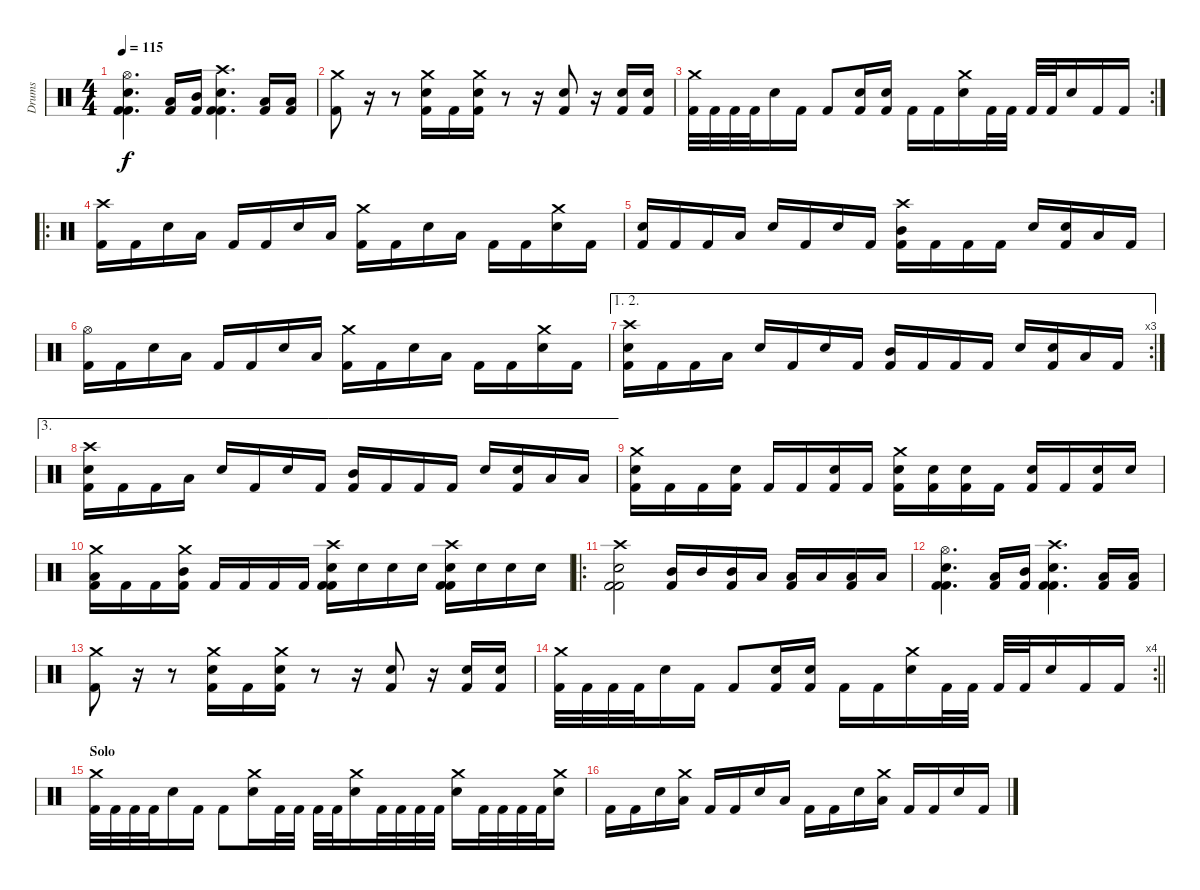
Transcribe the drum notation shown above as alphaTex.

\track ("Drums" "Drums") {instrument percussion}
\staff {score}
\articulation defaults
\ts (4 4)
\tempo 115
\clef neutral
\ks c
("Hi-Hat (open)" "Electric Snare (hit)" "Kick (hit) 2" "Kick (hit) 2").4{d dy f} ("Low Tom (hit)" "Kick (hit) 2").16 ("Mid Tom (hit)" "Kick (hit) 2").16 ("Crash high (hit)" "Electric Snare (hit)" "Kick (hit) 2" "Kick (hit) 2").4{d} ("Low Floor Tom (hit)" "Kick (hit) 2").16 ("Low Tom (hit)" "Kick (hit) 2").16 |
("Crash medium (hit)" "Kick (hit) 2").8 r.16 r.8 ("Crash medium (hit)" "Electric Snare (hit)" "Kick (hit) 2").16 "Kick (hit) 2".16 ("Crash medium (hit)" "Electric Snare (hit)" "Kick (hit) 2").16 r.8 r.16 ("Electric Snare (hit)" "Kick (hit) 2").8 r.16 ("Electric Snare (hit)" "Kick (hit) 2").16 ("Electric Snare (hit)" "Kick (hit) 2").16 |
\rc 2
("Crash medium (hit)" "Kick (hit) 2").32 "Kick (hit) 2".32 "Kick (hit) 2".32 "Kick (hit) 2".32 "Electric Snare (hit)".16 "Kick (hit) 2".16 "Kick (hit) 2".8 ("Electric Snare (hit)" "Kick (hit) 2").16 ("Electric Snare (hit)" "Kick (hit) 2").16 "Kick (hit) 2".16 "Kick (hit) 2".16 ("Crash medium (hit)" "Electric Snare (hit)").16 "Kick (hit) 2".32 "Kick (hit) 2".32 "Kick (hit) 2".32 "Kick (hit) 2".32 "Electric Snare (hit)".16 "Kick (hit) 2".16 "Kick (hit) 2".16 |
\ro
("Crash high (hit)" "Kick (hit) 2").16 "Kick (hit) 2".16 "Electric Snare (hit)".16 "Low Tom (hit)".16 "Kick (hit) 2".16 "Kick (hit) 2".16 "Electric Snare (hit)".16 "Low Tom (hit)".16 ("Crash medium (hit)" "Kick (hit) 2").16 "Kick (hit) 2".16 "Electric Snare (hit)".16 "Low Tom (hit)".16 "Kick (hit) 2".16 "Kick (hit) 2".16 ("Crash medium (hit)" "Electric Snare (hit)").16 "Kick (hit) 2".16 |
("Electric Snare (hit)" "Kick (hit) 2").16 "Kick (hit) 2".16 "Kick (hit) 2".16 "Low Tom (hit)".16 "Electric Snare (hit)".16 "Kick (hit) 2".16 "Electric Snare (hit)".16 "Kick (hit) 2".16 ("Crash high (hit)" "Mid Tom (hit)" "Kick (hit) 2").16 "Kick (hit) 2".16 "Kick (hit) 2".16 "Kick (hit) 2".16 "Electric Snare (hit)".16 ("Electric Snare (hit)" "Kick (hit) 2").16 "Low Floor Tom (hit)".16 "Kick (hit) 2".16 |
("Hi-Hat (open)" "Kick (hit) 2").16 "Kick (hit) 2".16 "Electric Snare (hit)".16 "Low Tom (hit)".16 "Kick (hit) 2".16 "Kick (hit) 2".16 "Electric Snare (hit)".16 "Low Tom (hit)".16 ("Crash medium (hit)" "Kick (hit) 2").16 "Kick (hit) 2".16 "Electric Snare (hit)".16 "Low Tom (hit)".16 "Kick (hit) 2".16 "Kick (hit) 2".16 ("Crash medium (hit)" "Electric Snare (hit)").16 "Kick (hit) 2".16 |
\ae (1 2)
\rc 3
("Crash high (hit)" "Electric Snare (hit)" "Kick (hit) 2").16 "Kick (hit) 2".16 "Kick (hit) 2".16 "Low Tom (hit)".16 "Electric Snare (hit)".16 "Kick (hit) 2".16 "Electric Snare (hit)".16 "Kick (hit) 2".16 ("Mid Tom (hit)" "Kick (hit) 2").16 "Kick (hit) 2".16 "Kick (hit) 2".16 "Kick (hit) 2".16 "Electric Snare (hit)".16 ("Electric Snare (hit)" "Kick (hit) 2").16 "Low Floor Tom (hit)".16 "Kick (hit) 2".16 |
\ae 3
("Crash high (hit)" "Electric Snare (hit)" "Kick (hit) 2").16 "Kick (hit) 2".16 "Kick (hit) 2".16 "Low Tom (hit)".16 "Electric Snare (hit)".16 "Kick (hit) 2".16 "Electric Snare (hit)".16 "Kick (hit) 2".16 ("Mid Tom (hit)" "Kick (hit) 2").16 "Kick (hit) 2".16 "Kick (hit) 2".16 "Kick (hit) 2".16 "Electric Snare (hit)".16 ("Electric Snare (hit)" "Kick (hit) 2").16 "Low Floor Tom (hit)".16 "Low Tom (hit)".16 |
("Crash medium (hit)" "Electric Snare (hit)" "Kick (hit) 2").16 "Kick (hit) 2".16 "Kick (hit) 2".16 ("Electric Snare (hit)" "Kick (hit) 2").16 "Kick (hit) 2".16 "Kick (hit) 2".16 ("Electric Snare (hit)" "Kick (hit) 2").16 "Kick (hit) 2".16 ("Crash medium (hit)" "Electric Snare (hit)" "Kick (hit) 2").16 ("Electric Snare (hit)" "Kick (hit) 2").16 ("Electric Snare (hit)" "Kick (hit) 2").16 "Kick (hit) 2".16 ("Electric Snare (hit)" "Kick (hit) 2").16 "Kick (hit) 2".16 ("Electric Snare (hit)" "Kick (hit) 2").16 "Electric Snare (hit)".16 |
("Crash medium (hit)" "Low Tom (hit)" "Kick (hit) 2").16 "Kick (hit) 2".16 "Kick (hit) 2".16 ("Crash medium (hit)" "Mid Tom (hit)" "Kick (hit) 2").16 "Kick (hit) 2".16 "Kick (hit) 2".16 "Kick (hit) 2".16 "Kick (hit) 2".16 ("Crash high (hit)" "Electric Snare (hit)" "Kick (hit) 2" "Kick (hit) 2").16 "Electric Snare (hit)".16 "Electric Snare (hit)".16 "Electric Snare (hit)".16 ("Crash high (hit)" "Electric Snare (hit)" "Kick (hit) 2" "Kick (hit) 2").16 "Electric Snare (hit)".16 "Electric Snare (hit)".16 "Electric Snare (hit)".16 |
\ro
("Crash high (hit)" "Electric Snare (hit)" "Kick (hit) 2" "Kick (hit) 2").2 ("Mid Tom (hit)" "Kick (hit) 2").16 "Mid Tom (hit)".16 ("Mid Tom (hit)" "Kick (hit) 2").16 "Low Tom (hit)".16 ("Low Tom (hit)" "Kick (hit) 2").16 "Low Tom (hit)".16 ("Low Floor Tom (hit)" "Kick (hit) 2").16 "Low Floor Tom (hit)".16 |
("Hi-Hat (open)" "Electric Snare (hit)" "Kick (hit) 2" "Kick (hit) 2").4{d} ("Low Tom (hit)" "Kick (hit) 2").16 ("Mid Tom (hit)" "Kick (hit) 2").16 ("Crash high (hit)" "Electric Snare (hit)" "Kick (hit) 2" "Kick (hit) 2").4{d} ("Low Floor Tom (hit)" "Kick (hit) 2").16 ("Low Tom (hit)" "Kick (hit) 2").16 |
("Crash medium (hit)" "Kick (hit) 2").8 r.16 r.8 ("Crash medium (hit)" "Electric Snare (hit)" "Kick (hit) 2").16 "Kick (hit) 2".16 ("Crash medium (hit)" "Electric Snare (hit)" "Kick (hit) 2").16 r.8 r.16 ("Electric Snare (hit)" "Kick (hit) 2").8 r.16 ("Electric Snare (hit)" "Kick (hit) 2").16 ("Electric Snare (hit)" "Kick (hit) 2").16 |
\rc 4
\barLineRight lightlight
("Crash medium (hit)" "Kick (hit) 2").32 "Kick (hit) 2".32 "Kick (hit) 2".32 "Kick (hit) 2".32 "Electric Snare (hit)".16 "Kick (hit) 2".16 "Kick (hit) 2".8 ("Electric Snare (hit)" "Kick (hit) 2").16 ("Electric Snare (hit)" "Kick (hit) 2").16 "Kick (hit) 2".16 "Kick (hit) 2".16 ("Crash medium (hit)" "Electric Snare (hit)").16 "Kick (hit) 2".32 "Kick (hit) 2".32 "Kick (hit) 2".32 "Kick (hit) 2".32 "Electric Snare (hit)".16 "Kick (hit) 2".16 "Kick (hit) 2".16 |
\section ("" "Solo")
("Crash medium (hit)" "Kick (hit) 2").32 "Kick (hit) 2".32 "Kick (hit) 2".32 "Kick (hit) 2".32 "Electric Snare (hit)".16 "Kick (hit) 2".16 "Kick (hit) 2".8 ("Crash medium (hit)" "Electric Snare (hit)").16 "Kick (hit) 2".32 "Kick (hit) 2".32 "Kick (hit) 2".32 "Kick (hit) 2".32 ("Crash medium (hit)" "Electric Snare (hit)").16 "Kick (hit) 2".32 "Kick (hit) 2".32 "Kick (hit) 2".32 "Kick (hit) 2".32 ("Crash medium (hit)" "Electric Snare (hit)").16 "Kick (hit) 2".32 "Kick (hit) 2".32 "Kick (hit) 2".32 "Kick (hit) 2".32 ("Crash medium (hit)" "Electric Snare (hit)").16 |
"Kick (hit) 2".16 "Kick (hit) 2".16 "Electric Snare (hit)".16 ("Crash medium (hit)" "Low Tom (hit)").16 "Kick (hit) 2".16 "Kick (hit) 2".16 "Electric Snare (hit)".16 "Low Tom (hit)".16 "Kick (hit) 2".16 "Kick (hit) 2".16 "Electric Snare (hit)".16 ("Crash medium (hit)" "Low Tom (hit)").16 "Kick (hit) 2".16 "Kick (hit) 2".16 "Electric Snare (hit)".16 "Kick (hit) 2".16
